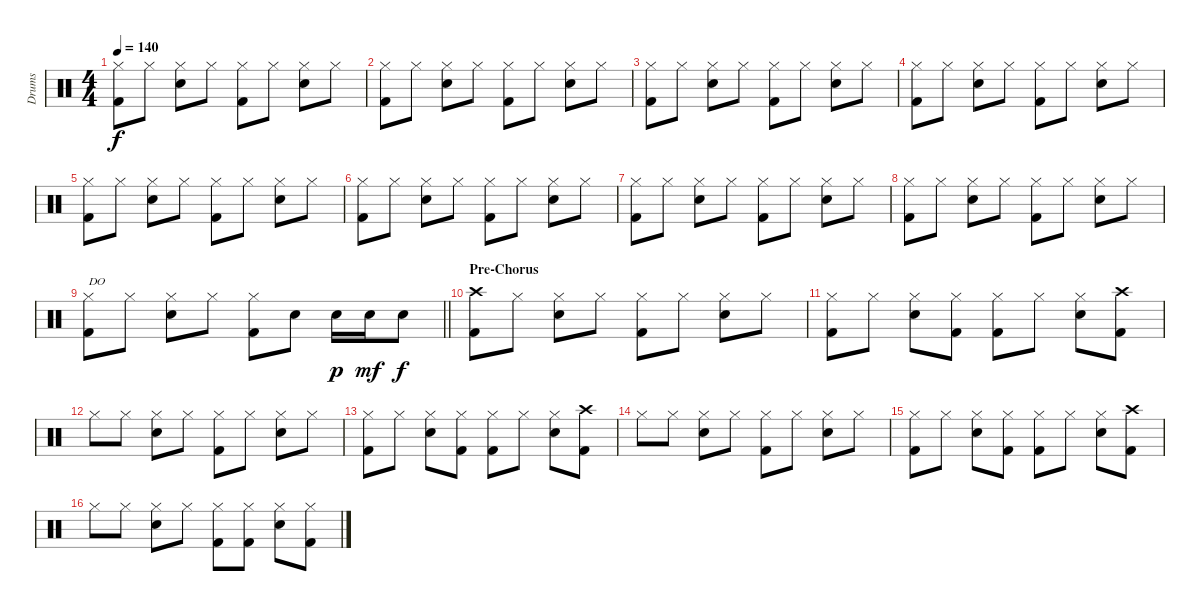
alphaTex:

\track ("Drums" "Drums") {instrument percussion}
\staff {score}
\articulation defaults
\ts (4 4)
\tempo 140
\clef neutral
\ks c
("Hi-Hat (closed)" "Kick (hit) 2").8{dy f} "Hi-Hat (closed)".8 ("Hi-Hat (closed)" "Snare (hit) 2").8 "Hi-Hat (closed)".8 ("Hi-Hat (closed)" "Kick (hit) 2").8 "Hi-Hat (closed)".8 ("Hi-Hat (closed)" "Snare (hit) 2").8 "Hi-Hat (closed)".8 |
("Hi-Hat (closed)" "Kick (hit) 2").8 "Hi-Hat (closed)".8 ("Hi-Hat (closed)" "Snare (hit) 2").8 "Hi-Hat (closed)".8 ("Hi-Hat (closed)" "Kick (hit) 2").8 "Hi-Hat (closed)".8 ("Hi-Hat (closed)" "Snare (hit) 2").8 "Hi-Hat (closed)".8 |
("Hi-Hat (closed)" "Kick (hit) 2").8 "Hi-Hat (closed)".8 ("Hi-Hat (closed)" "Snare (hit) 2").8 "Hi-Hat (closed)".8 ("Hi-Hat (closed)" "Kick (hit) 2").8 "Hi-Hat (closed)".8 ("Hi-Hat (closed)" "Snare (hit) 2").8 "Hi-Hat (closed)".8 |
("Hi-Hat (closed)" "Kick (hit) 2").8 "Hi-Hat (closed)".8 ("Hi-Hat (closed)" "Snare (hit) 2").8 "Hi-Hat (closed)".8 ("Hi-Hat (closed)" "Kick (hit) 2").8 "Hi-Hat (closed)".8 ("Hi-Hat (closed)" "Snare (hit) 2").8 "Hi-Hat (closed)".8 |
("Hi-Hat (closed)" "Kick (hit) 2").8 "Hi-Hat (closed)".8 ("Hi-Hat (closed)" "Snare (hit) 2").8 "Hi-Hat (closed)".8 ("Hi-Hat (closed)" "Kick (hit) 2").8 "Hi-Hat (closed)".8 ("Hi-Hat (closed)" "Snare (hit) 2").8 "Hi-Hat (closed)".8 |
("Hi-Hat (closed)" "Kick (hit) 2").8 "Hi-Hat (closed)".8 ("Hi-Hat (closed)" "Snare (hit) 2").8 "Hi-Hat (closed)".8 ("Hi-Hat (closed)" "Kick (hit) 2").8 "Hi-Hat (closed)".8 ("Hi-Hat (closed)" "Snare (hit) 2").8 "Hi-Hat (closed)".8 |
("Hi-Hat (closed)" "Kick (hit) 2").8 "Hi-Hat (closed)".8 ("Hi-Hat (closed)" "Snare (hit) 2").8 "Hi-Hat (closed)".8 ("Hi-Hat (closed)" "Kick (hit) 2").8 "Hi-Hat (closed)".8 ("Hi-Hat (closed)" "Snare (hit) 2").8 "Hi-Hat (closed)".8 |
("Hi-Hat (closed)" "Kick (hit) 2").8 "Hi-Hat (closed)".8 ("Hi-Hat (closed)" "Snare (hit) 2").8 "Hi-Hat (closed)".8 ("Hi-Hat (closed)" "Kick (hit) 2").8 "Hi-Hat (closed)".8 ("Hi-Hat (closed)" "Snare (hit) 2").8 "Hi-Hat (closed)".8 |
\barLineRight lightlight
("Hi-Hat (closed)" "Kick (hit) 2").8{txt "DO"} "Hi-Hat (closed)".8 ("Hi-Hat (closed)" "Snare (hit) 2").8 "Hi-Hat (closed)".8 ("Hi-Hat (closed)" "Kick (hit) 2").8 "Snare (hit) 2".8 "Snare (hit) 2".16{dy p} "Snare (hit) 2".16{dy mf} "Snare (hit) 2".8{dy f} |
\section ("" "Pre-Chorus")
("Crash high (hit)" "Kick (hit) 2").8 "Hi-Hat (closed)".8 ("Hi-Hat (closed)" "Snare (hit) 2").8 "Hi-Hat (closed)".8 ("Hi-Hat (closed)" "Kick (hit) 2").8 "Hi-Hat (closed)".8 ("Hi-Hat (closed)" "Snare (hit) 2").8 "Hi-Hat (closed)".8 |
("Hi-Hat (closed)" "Kick (hit) 2").8 "Hi-Hat (closed)".8 ("Hi-Hat (closed)" "Snare (hit) 2").8 ("Hi-Hat (closed)" "Kick (hit) 2").8 ("Hi-Hat (closed)" "Kick (hit) 2").8 "Hi-Hat (closed)".8 ("Hi-Hat (closed)" "Snare (hit) 2").8 ("Crash high (hit)" "Kick (hit) 2").8 |
"Hi-Hat (closed)".8 "Hi-Hat (closed)".8 ("Hi-Hat (closed)" "Snare (hit) 2").8 "Hi-Hat (closed)".8 ("Hi-Hat (closed)" "Kick (hit) 2").8 "Hi-Hat (closed)".8 ("Hi-Hat (closed)" "Snare (hit) 2").8 "Hi-Hat (closed)".8 |
("Hi-Hat (closed)" "Kick (hit) 2").8 "Hi-Hat (closed)".8 ("Hi-Hat (closed)" "Snare (hit) 2").8 ("Hi-Hat (closed)" "Kick (hit) 2").8 ("Hi-Hat (closed)" "Kick (hit) 2").8 "Hi-Hat (closed)".8 ("Hi-Hat (closed)" "Snare (hit) 2").8 ("Crash high (hit)" "Kick (hit) 2").8 |
"Hi-Hat (closed)".8 "Hi-Hat (closed)".8 ("Hi-Hat (closed)" "Snare (hit) 2").8 "Hi-Hat (closed)".8 ("Hi-Hat (closed)" "Kick (hit) 2").8 "Hi-Hat (closed)".8 ("Hi-Hat (closed)" "Snare (hit) 2").8 "Hi-Hat (closed)".8 |
("Hi-Hat (closed)" "Kick (hit) 2").8 "Hi-Hat (closed)".8 ("Hi-Hat (closed)" "Snare (hit) 2").8 ("Hi-Hat (closed)" "Kick (hit) 2").8 ("Hi-Hat (closed)" "Kick (hit) 2").8 "Hi-Hat (closed)".8 ("Hi-Hat (closed)" "Snare (hit) 2").8 ("Crash high (hit)" "Kick (hit) 2").8 |
"Hi-Hat (closed)".8 "Hi-Hat (closed)".8 ("Hi-Hat (closed)" "Snare (hit) 2").8 "Hi-Hat (closed)".8 ("Hi-Hat (closed)" "Kick (hit) 2").8 ("Hi-Hat (closed)" "Kick (hit) 2").8 ("Hi-Hat (closed)" "Snare (hit) 2").8 ("Hi-Hat (closed)" "Kick (hit) 2").8
